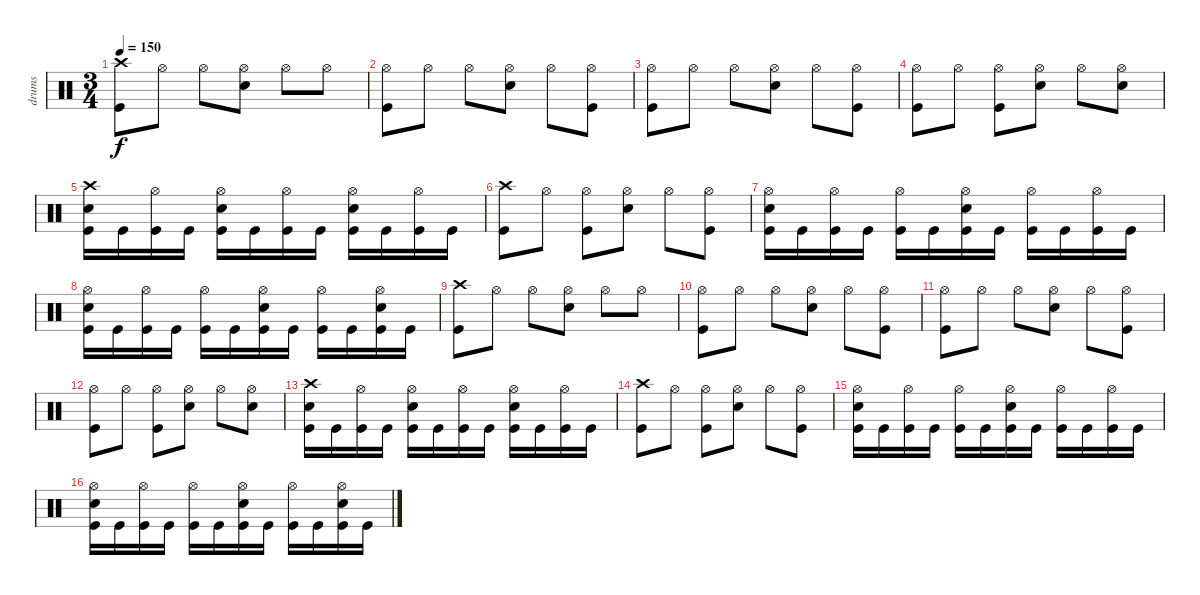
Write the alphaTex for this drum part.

\track ("drums" "drums") {instrument percussion}
\staff {score}
\articulation defaults
\ts (3 4)
\tempo 150
\clef neutral
\ks c
("Crash high (hit)" "Kick (hit)").8{dy f} "Hi-Hat (open)".8 "Hi-Hat (open)".8 ("Hi-Hat (open)" "Snare (hit) 2").8 "Hi-Hat (open)".8 "Hi-Hat (open)".8 |
("Hi-Hat (open)" "Kick (hit)").8 "Hi-Hat (open)".8 "Hi-Hat (open)".8 ("Hi-Hat (open)" "Snare (hit) 2").8 "Hi-Hat (open)".8 ("Hi-Hat (open)" "Kick (hit)").8 |
("Hi-Hat (open)" "Kick (hit)").8 "Hi-Hat (open)".8 "Hi-Hat (open)".8 ("Hi-Hat (open)" "Snare (hit) 2").8 "Hi-Hat (open)".8 ("Hi-Hat (open)" "Kick (hit)").8 |
("Hi-Hat (open)" "Kick (hit)").8 "Hi-Hat (open)".8 ("Hi-Hat (open)" "Kick (hit)").8 ("Hi-Hat (open)" "Snare (hit) 2").8 "Hi-Hat (open)".8 ("Hi-Hat (open)" "Snare (hit) 2").8 |
("Crash high (hit)" "Snare (hit) 2" "Kick (hit)").16 "Kick (hit)".16 ("Hi-Hat (open)" "Kick (hit)").16 "Kick (hit)".16 ("Hi-Hat (open)" "Snare (hit) 2" "Kick (hit)").16 "Kick (hit)".16 ("Hi-Hat (open)" "Kick (hit)").16 "Kick (hit)".16 ("Hi-Hat (open)" "Snare (hit) 2" "Kick (hit)").16 "Kick (hit)".16 ("Hi-Hat (open)" "Kick (hit)").16 "Kick (hit)".16 |
("Crash high (hit)" "Kick (hit)").8 "Hi-Hat (open)".8 ("Hi-Hat (open)" "Kick (hit)").8 ("Hi-Hat (open)" "Snare (hit) 2").8 "Hi-Hat (open)".8 ("Hi-Hat (open)" "Kick (hit)").8 |
("Hi-Hat (open)" "Snare (hit) 2" "Kick (hit)").16 "Kick (hit)".16 ("Hi-Hat (open)" "Kick (hit)").16 "Kick (hit)".16 ("Hi-Hat (open)" "Kick (hit)").16 "Kick (hit)".16 ("Hi-Hat (open)" "Snare (hit) 2" "Kick (hit)").16 "Kick (hit)".16 ("Hi-Hat (open)" "Kick (hit)").16 "Kick (hit)".16 ("Hi-Hat (open)" "Kick (hit)").16 "Kick (hit)".16 |
("Hi-Hat (open)" "Snare (hit) 2" "Kick (hit)").16 "Kick (hit)".16 ("Hi-Hat (open)" "Kick (hit)").16 "Kick (hit)".16 ("Hi-Hat (open)" "Kick (hit)").16 "Kick (hit)".16 ("Hi-Hat (open)" "Snare (hit) 2" "Kick (hit)").16 "Kick (hit)".16 ("Hi-Hat (open)" "Kick (hit)").16 "Kick (hit)".16 ("Hi-Hat (open)" "Snare (hit) 2" "Kick (hit)").16 "Kick (hit)".16 |
("Crash high (hit)" "Kick (hit)").8 "Hi-Hat (open)".8 "Hi-Hat (open)".8 ("Hi-Hat (open)" "Snare (hit) 2").8 "Hi-Hat (open)".8 "Hi-Hat (open)".8 |
("Hi-Hat (open)" "Kick (hit)").8 "Hi-Hat (open)".8 "Hi-Hat (open)".8 ("Hi-Hat (open)" "Snare (hit) 2").8 "Hi-Hat (open)".8 ("Hi-Hat (open)" "Kick (hit)").8 |
("Hi-Hat (open)" "Kick (hit)").8 "Hi-Hat (open)".8 "Hi-Hat (open)".8 ("Hi-Hat (open)" "Snare (hit) 2").8 "Hi-Hat (open)".8 ("Hi-Hat (open)" "Kick (hit)").8 |
("Hi-Hat (open)" "Kick (hit)").8 "Hi-Hat (open)".8 ("Hi-Hat (open)" "Kick (hit)").8 ("Hi-Hat (open)" "Snare (hit) 2").8 "Hi-Hat (open)".8 ("Hi-Hat (open)" "Snare (hit) 2").8 |
("Crash high (hit)" "Snare (hit) 2" "Kick (hit)").16 "Kick (hit)".16 ("Hi-Hat (open)" "Kick (hit)").16 "Kick (hit)".16 ("Hi-Hat (open)" "Snare (hit) 2" "Kick (hit)").16 "Kick (hit)".16 ("Hi-Hat (open)" "Kick (hit)").16 "Kick (hit)".16 ("Hi-Hat (open)" "Snare (hit) 2" "Kick (hit)").16 "Kick (hit)".16 ("Hi-Hat (open)" "Kick (hit)").16 "Kick (hit)".16 |
("Crash high (hit)" "Kick (hit)").8 "Hi-Hat (open)".8 ("Hi-Hat (open)" "Kick (hit)").8 ("Hi-Hat (open)" "Snare (hit) 2").8 "Hi-Hat (open)".8 ("Hi-Hat (open)" "Kick (hit)").8 |
("Hi-Hat (open)" "Snare (hit) 2" "Kick (hit)").16 "Kick (hit)".16 ("Hi-Hat (open)" "Kick (hit)").16 "Kick (hit)".16 ("Hi-Hat (open)" "Kick (hit)").16 "Kick (hit)".16 ("Hi-Hat (open)" "Snare (hit) 2" "Kick (hit)").16 "Kick (hit)".16 ("Hi-Hat (open)" "Kick (hit)").16 "Kick (hit)".16 ("Hi-Hat (open)" "Kick (hit)").16 "Kick (hit)".16 |
("Hi-Hat (open)" "Snare (hit) 2" "Kick (hit)").16 "Kick (hit)".16 ("Hi-Hat (open)" "Kick (hit)").16 "Kick (hit)".16 ("Hi-Hat (open)" "Kick (hit)").16 "Kick (hit)".16 ("Hi-Hat (open)" "Snare (hit) 2" "Kick (hit)").16 "Kick (hit)".16 ("Hi-Hat (open)" "Kick (hit)").16 "Kick (hit)".16 ("Hi-Hat (open)" "Snare (hit) 2" "Kick (hit)").16 "Kick (hit)".16
